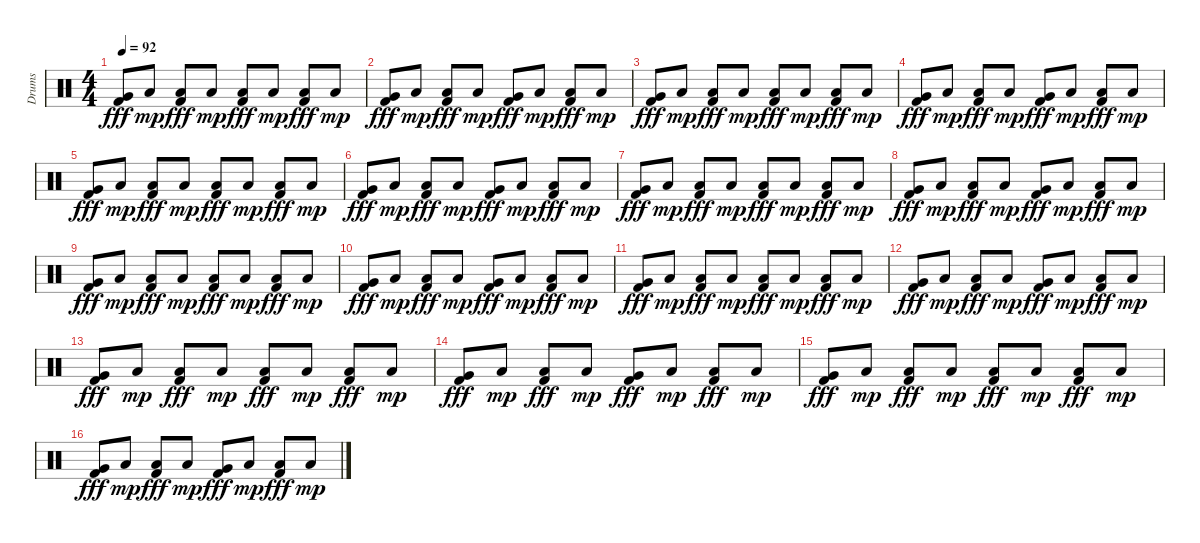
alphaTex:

\track ("Drums" "Drums") {instrument percussion}
\staff {score}
\articulation defaults
\ts (4 4)
\tempo 92
\clef neutral
\ks c
("Very Low Tom (hit)" "Kick (hit) 2").8{dy fff} "Low Floor Tom (hit)".8{dy mp} ("Low Floor Tom (hit)" "Kick (hit) 2").8{dy fff} "Low Floor Tom (hit)".8{dy mp} ("Low Floor Tom (hit)" "Kick (hit) 2").8{dy fff} "Low Floor Tom (hit)".8{dy mp} ("Low Floor Tom (hit)" "Kick (hit) 2").8{dy fff} "Low Floor Tom (hit)".8{dy mp} |
("Very Low Tom (hit)" "Kick (hit) 2").8{dy fff} "Low Floor Tom (hit)".8{dy mp} ("Low Floor Tom (hit)" "Kick (hit) 2").8{dy fff} "Low Floor Tom (hit)".8{dy mp} ("Very Low Tom (hit)" "Kick (hit) 2").8{dy fff} "Low Floor Tom (hit)".8{dy mp} ("Low Floor Tom (hit)" "Kick (hit) 2").8{dy fff} "Low Floor Tom (hit)".8{dy mp} |
("Very Low Tom (hit)" "Kick (hit) 2").8{dy fff} "Low Floor Tom (hit)".8{dy mp} ("Low Floor Tom (hit)" "Kick (hit) 2").8{dy fff} "Low Floor Tom (hit)".8{dy mp} ("Low Floor Tom (hit)" "Kick (hit) 2").8{dy fff} "Low Floor Tom (hit)".8{dy mp} ("Low Floor Tom (hit)" "Kick (hit) 2").8{dy fff} "Low Floor Tom (hit)".8{dy mp} |
("Very Low Tom (hit)" "Kick (hit) 2").8{dy fff} "Low Floor Tom (hit)".8{dy mp} ("Low Floor Tom (hit)" "Kick (hit) 2").8{dy fff} "Low Floor Tom (hit)".8{dy mp} ("Very Low Tom (hit)" "Kick (hit) 2").8{dy fff} "Low Floor Tom (hit)".8{dy mp} ("Low Floor Tom (hit)" "Kick (hit) 2").8{dy fff} "Low Floor Tom (hit)".8{dy mp} |
("Very Low Tom (hit)" "Kick (hit) 2").8{dy fff} "Low Floor Tom (hit)".8{dy mp} ("Low Floor Tom (hit)" "Kick (hit) 2").8{dy fff} "Low Floor Tom (hit)".8{dy mp} ("Low Floor Tom (hit)" "Kick (hit) 2").8{dy fff} "Low Floor Tom (hit)".8{dy mp} ("Low Floor Tom (hit)" "Kick (hit) 2").8{dy fff} "Low Floor Tom (hit)".8{dy mp} |
("Very Low Tom (hit)" "Kick (hit) 2").8{dy fff} "Low Floor Tom (hit)".8{dy mp} ("Low Floor Tom (hit)" "Kick (hit) 2").8{dy fff} "Low Floor Tom (hit)".8{dy mp} ("Very Low Tom (hit)" "Kick (hit) 2").8{dy fff} "Low Floor Tom (hit)".8{dy mp} ("Low Floor Tom (hit)" "Kick (hit) 2").8{dy fff} "Low Floor Tom (hit)".8{dy mp} |
("Very Low Tom (hit)" "Kick (hit) 2").8{dy fff} "Low Floor Tom (hit)".8{dy mp} ("Low Floor Tom (hit)" "Kick (hit) 2").8{dy fff} "Low Floor Tom (hit)".8{dy mp} ("Low Floor Tom (hit)" "Kick (hit) 2").8{dy fff} "Low Floor Tom (hit)".8{dy mp} ("Low Floor Tom (hit)" "Kick (hit) 2").8{dy fff} "Low Floor Tom (hit)".8{dy mp} |
("Very Low Tom (hit)" "Kick (hit) 2").8{dy fff} "Low Floor Tom (hit)".8{dy mp} ("Low Floor Tom (hit)" "Kick (hit) 2").8{dy fff} "Low Floor Tom (hit)".8{dy mp} ("Very Low Tom (hit)" "Kick (hit) 2").8{dy fff} "Low Floor Tom (hit)".8{dy mp} ("Low Floor Tom (hit)" "Kick (hit) 2").8{dy fff} "Low Floor Tom (hit)".8{dy mp} |
("Very Low Tom (hit)" "Kick (hit) 2").8{dy fff} "Low Floor Tom (hit)".8{dy mp} ("Low Floor Tom (hit)" "Kick (hit) 2").8{dy fff} "Low Floor Tom (hit)".8{dy mp} ("Low Floor Tom (hit)" "Kick (hit) 2").8{dy fff} "Low Floor Tom (hit)".8{dy mp} ("Low Floor Tom (hit)" "Kick (hit) 2").8{dy fff} "Low Floor Tom (hit)".8{dy mp} |
("Very Low Tom (hit)" "Kick (hit) 2").8{dy fff} "Low Floor Tom (hit)".8{dy mp} ("Low Floor Tom (hit)" "Kick (hit) 2").8{dy fff} "Low Floor Tom (hit)".8{dy mp} ("Very Low Tom (hit)" "Kick (hit) 2").8{dy fff} "Low Floor Tom (hit)".8{dy mp} ("Low Floor Tom (hit)" "Kick (hit) 2").8{dy fff} "Low Floor Tom (hit)".8{dy mp} |
("Very Low Tom (hit)" "Kick (hit) 2").8{dy fff} "Low Floor Tom (hit)".8{dy mp} ("Low Floor Tom (hit)" "Kick (hit) 2").8{dy fff} "Low Floor Tom (hit)".8{dy mp} ("Low Floor Tom (hit)" "Kick (hit) 2").8{dy fff} "Low Floor Tom (hit)".8{dy mp} ("Low Floor Tom (hit)" "Kick (hit) 2").8{dy fff} "Low Floor Tom (hit)".8{dy mp} |
("Very Low Tom (hit)" "Kick (hit) 2").8{dy fff} "Low Floor Tom (hit)".8{dy mp} ("Low Floor Tom (hit)" "Kick (hit) 2").8{dy fff} "Low Floor Tom (hit)".8{dy mp} ("Very Low Tom (hit)" "Kick (hit) 2").8{dy fff} "Low Floor Tom (hit)".8{dy mp} ("Low Floor Tom (hit)" "Kick (hit) 2").8{dy fff} "Low Floor Tom (hit)".8{dy mp} |
("Very Low Tom (hit)" "Kick (hit) 2").8{dy fff} "Low Floor Tom (hit)".8{dy mp} ("Low Floor Tom (hit)" "Kick (hit) 2").8{dy fff} "Low Floor Tom (hit)".8{dy mp} ("Low Floor Tom (hit)" "Kick (hit) 2").8{dy fff} "Low Floor Tom (hit)".8{dy mp} ("Low Floor Tom (hit)" "Kick (hit) 2").8{dy fff} "Low Floor Tom (hit)".8{dy mp} |
("Very Low Tom (hit)" "Kick (hit) 2").8{dy fff} "Low Floor Tom (hit)".8{dy mp} ("Low Floor Tom (hit)" "Kick (hit) 2").8{dy fff} "Low Floor Tom (hit)".8{dy mp} ("Very Low Tom (hit)" "Kick (hit) 2").8{dy fff} "Low Floor Tom (hit)".8{dy mp} ("Low Floor Tom (hit)" "Kick (hit) 2").8{dy fff} "Low Floor Tom (hit)".8{dy mp} |
("Very Low Tom (hit)" "Kick (hit) 2").8{dy fff} "Low Floor Tom (hit)".8{dy mp} ("Low Floor Tom (hit)" "Kick (hit) 2").8{dy fff} "Low Floor Tom (hit)".8{dy mp} ("Low Floor Tom (hit)" "Kick (hit) 2").8{dy fff} "Low Floor Tom (hit)".8{dy mp} ("Low Floor Tom (hit)" "Kick (hit) 2").8{dy fff} "Low Floor Tom (hit)".8{dy mp} |
("Very Low Tom (hit)" "Kick (hit) 2").8{dy fff} "Low Floor Tom (hit)".8{dy mp} ("Low Floor Tom (hit)" "Kick (hit) 2").8{dy fff} "Low Floor Tom (hit)".8{dy mp} ("Very Low Tom (hit)" "Kick (hit) 2").8{dy fff} "Low Floor Tom (hit)".8{dy mp} ("Low Floor Tom (hit)" "Kick (hit) 2").8{dy fff} "Low Floor Tom (hit)".8{dy mp}
